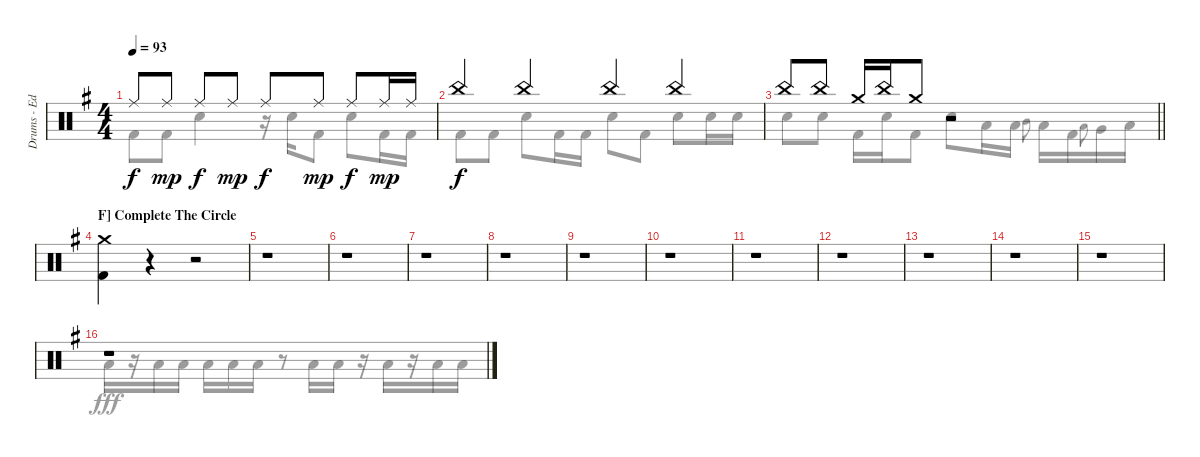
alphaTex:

\track ("Drums - Ed Warby" "Drums - Ed") {instrument percussion}
\staff {score}
\articulation defaults
\voice
\ts (4 4)
\tempo 93
\clef neutral
\ks eminor "Ride (middle)".8{dy f} "Ride (middle)".8{dy mp} "Ride (middle)".8{dy f} "Ride (middle)".8{dy mp} "Ride (middle)".8{dy f} "Ride (middle)".8{dy mp} "Ride (middle)".8{dy f} "Ride (middle)".16{dy mp} "Ride (middle)".16
|
"China (hit)".4{dy f} "China (hit)".4 "China (hit)".4 "China (hit)".4 |
\barLineRight lightlight "China (hit)".8 "China (hit)".8 "Crash medium (hit)".16 "China (hit)".16 "Crash medium (hit)".8
r.2 |
\section ("" "F] Complete The Circle")
("Crash medium (hit)" "Kick (hit) 2").4 r.4 r.2 |
r.1 |
r.1 |
r.1 |
r.1 |
r.1 |
r.1 |
r.1 |
r.1 |
r.1 |
r.1 |
r.1 |
r.1
\voice
\clef neutral
\ottava regular
\simile none
\ks eminor "Kick (hit) 2".8{dy f} "Kick (hit) 2".8 "Snare (hit) 2".4
r.16 "Snare (hit) 2".16 "Kick (hit) 2".8 "Snare (hit) 2".8 "Kick (hit) 2".16 "Kick (hit) 2".16 |
"Kick (hit) 2".8 "Kick (hit) 2".8 "Snare (hit) 2".8 "Kick (hit) 2".16 "Kick (hit) 2".16 "Snare (hit) 2".8 "Kick (hit) 2".8 "Snare (hit) 2".8 "Snare (hit) 2".16 "Snare (hit) 2".16 |
\barLineRight lightlight "Snare (hit) 2".8 "Snare (hit) 2".8 "Kick (hit) 2".16 "Snare (hit) 2".16 "Kick (hit) 2".8 "Snare (hit) 2".8 "Low Tom (hit)".16 "Low Tom (hit)".16 "Mid Tom (hit)".8{gr onbeat} "Low Tom (hit)".16 "Kick (hit) 2".16 "Low Tom (hit)".8{gr onbeat} "Very Low Tom (hit)".16 "Low Floor Tom (hit)".16
|
|
|
|
|
|
|
|
|
|
|
|
|
"Low Tom (hit)".16{dy fff} r.16 "Low Tom (hit)".16 "Low Tom (hit)".16 "Low Tom (hit)".16 "Low Tom (hit)".16 "Low Tom (hit)".16 r.8 "Low Tom (hit)".16 "Low Tom (hit)".16 r.16 "Low Tom (hit)".16 r.16 "Low Tom (hit)".16 "Low Tom (hit)".16
